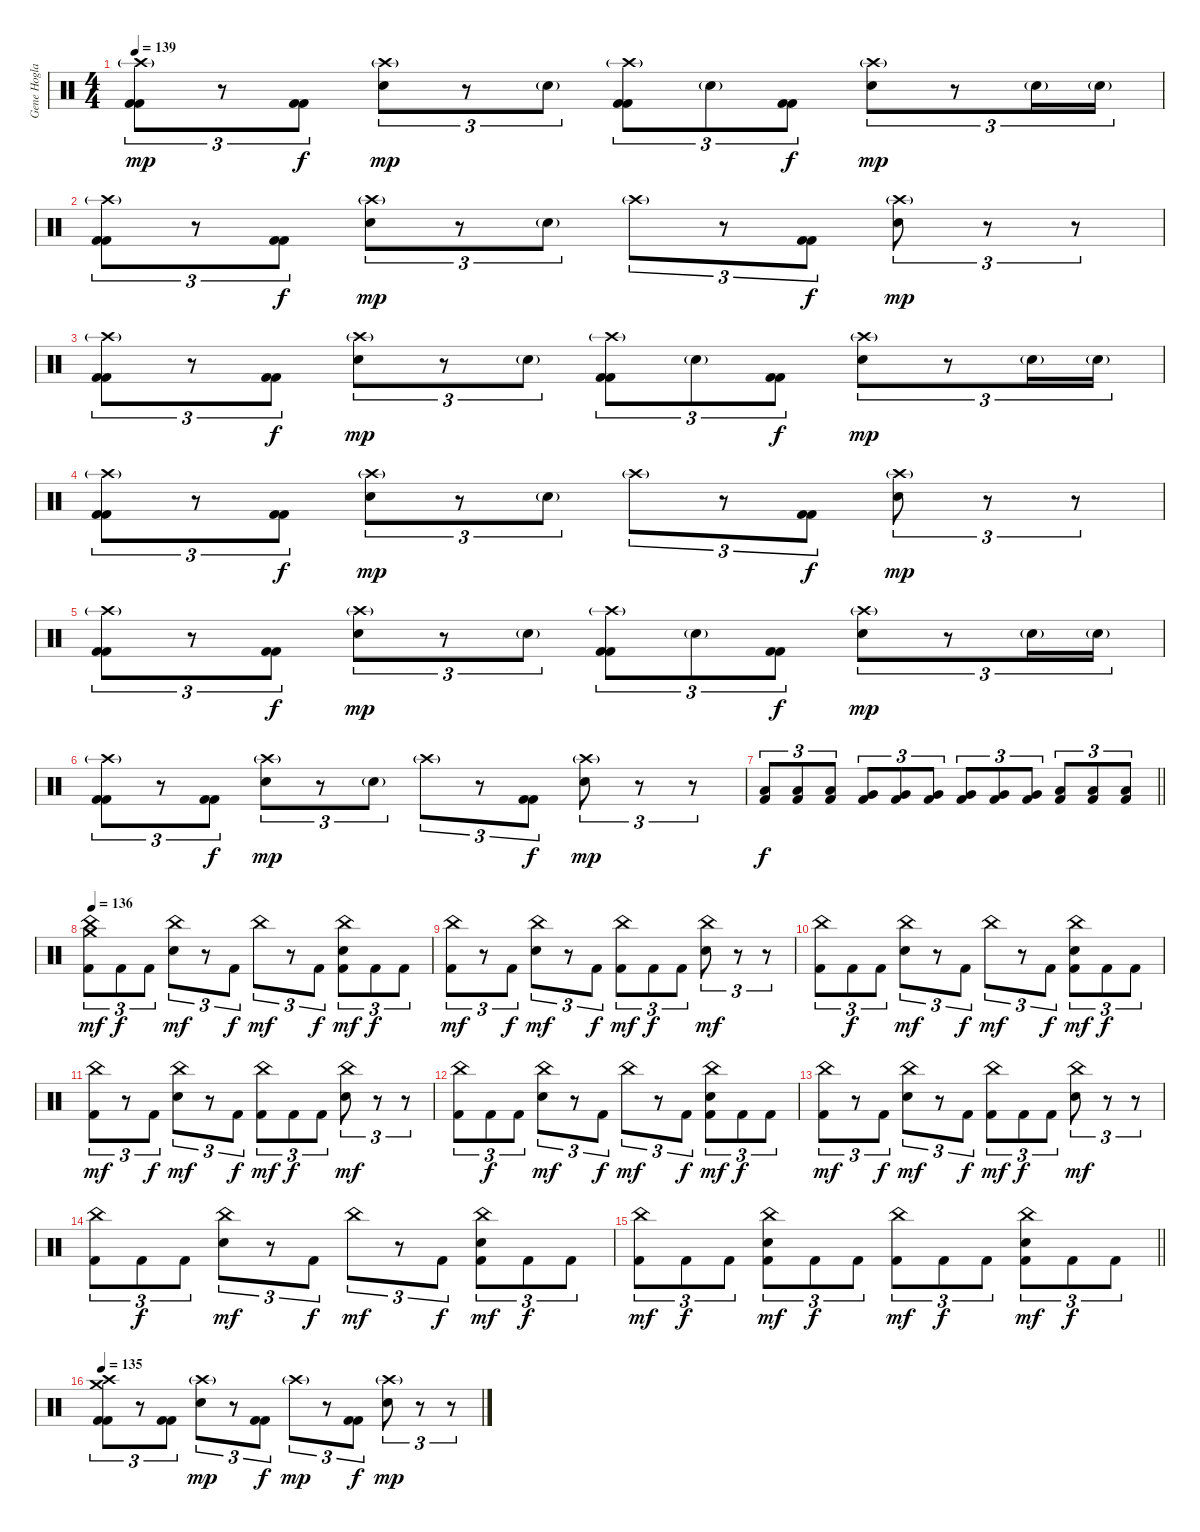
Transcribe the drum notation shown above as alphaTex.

\track ("Gene Hoglan" "Gene Hogla") {instrument percussion}
\staff {score}
\articulation defaults
\ts (4 4)
\tempo 139
\clef neutral
\ks c
("Crash high (hit)"{g} "Kick (hit) 2" "Kick (hit) 2").8{tu (3 2) dy mp} r.8{tu (3 2)} ("Kick (hit) 2" "Kick (hit) 2").8{tu (3 2) dy f} ("Crash high (hit)"{g} "Electric Snare (hit)").8{tu (3 2) dy mp} r.8{tu (3 2)} "Electric Snare (hit)"{g}.8{tu (3 2)} ("Crash high (hit)"{g} "Kick (hit) 2" "Kick (hit) 2").8{tu (3 2)} "Electric Snare (hit)"{g}.8{tu (3 2)} ("Kick (hit) 2" "Kick (hit) 2").8{tu (3 2) dy f} ("Crash high (hit)"{g} "Electric Snare (hit)").8{tu (3 2) dy mp} r.8{tu (3 2)} "Electric Snare (hit)"{g}.16{tu (3 2)} "Electric Snare (hit)"{g}.16{tu (3 2)} |
("Crash high (hit)"{g} "Kick (hit) 2" "Kick (hit) 2").8{tu (3 2)} r.8{tu (3 2)} ("Kick (hit) 2" "Kick (hit) 2").8{tu (3 2) dy f} ("Crash high (hit)"{g} "Electric Snare (hit)").8{tu (3 2) dy mp} r.8{tu (3 2)} "Electric Snare (hit)"{g}.8{tu (3 2)} "Crash high (hit)"{g}.8{tu (3 2)} r.8{tu (3 2)} ("Kick (hit) 2" "Kick (hit) 2").8{tu (3 2) dy f} ("Crash high (hit)"{g} "Electric Snare (hit)").8{tu (3 2) dy mp} r.8{tu (3 2)} r.8{tu (3 2)} |
("Crash high (hit)"{g} "Kick (hit) 2" "Kick (hit) 2").8{tu (3 2)} r.8{tu (3 2)} ("Kick (hit) 2" "Kick (hit) 2").8{tu (3 2) dy f} ("Crash high (hit)"{g} "Electric Snare (hit)").8{tu (3 2) dy mp} r.8{tu (3 2)} "Electric Snare (hit)"{g}.8{tu (3 2)} ("Crash high (hit)"{g} "Kick (hit) 2" "Kick (hit) 2").8{tu (3 2)} "Electric Snare (hit)"{g}.8{tu (3 2)} ("Kick (hit) 2" "Kick (hit) 2").8{tu (3 2) dy f} ("Crash high (hit)"{g} "Electric Snare (hit)").8{tu (3 2) dy mp} r.8{tu (3 2)} "Electric Snare (hit)"{g}.16{tu (3 2)} "Electric Snare (hit)"{g}.16{tu (3 2)} |
("Crash high (hit)"{g} "Kick (hit) 2" "Kick (hit) 2").8{tu (3 2)} r.8{tu (3 2)} ("Kick (hit) 2" "Kick (hit) 2").8{tu (3 2) dy f} ("Crash high (hit)"{g} "Electric Snare (hit)").8{tu (3 2) dy mp} r.8{tu (3 2)} "Electric Snare (hit)"{g}.8{tu (3 2)} "Crash high (hit)"{g}.8{tu (3 2)} r.8{tu (3 2)} ("Kick (hit) 2" "Kick (hit) 2").8{tu (3 2) dy f} ("Crash high (hit)"{g} "Electric Snare (hit)").8{tu (3 2) dy mp} r.8{tu (3 2)} r.8{tu (3 2)} |
("Crash high (hit)"{g} "Kick (hit) 2" "Kick (hit) 2").8{tu (3 2)} r.8{tu (3 2)} ("Kick (hit) 2" "Kick (hit) 2").8{tu (3 2) dy f} ("Crash high (hit)"{g} "Electric Snare (hit)").8{tu (3 2) dy mp} r.8{tu (3 2)} "Electric Snare (hit)"{g}.8{tu (3 2)} ("Crash high (hit)"{g} "Kick (hit) 2" "Kick (hit) 2").8{tu (3 2)} "Electric Snare (hit)"{g}.8{tu (3 2)} ("Kick (hit) 2" "Kick (hit) 2").8{tu (3 2) dy f} ("Crash high (hit)"{g} "Electric Snare (hit)").8{tu (3 2) dy mp} r.8{tu (3 2)} "Electric Snare (hit)"{g}.16{tu (3 2)} "Electric Snare (hit)"{g}.16{tu (3 2)} |
("Crash high (hit)"{g} "Kick (hit) 2" "Kick (hit) 2").8{tu (3 2)} r.8{tu (3 2)} ("Kick (hit) 2" "Kick (hit) 2").8{tu (3 2) dy f} ("Crash high (hit)"{g} "Electric Snare (hit)").8{tu (3 2) dy mp} r.8{tu (3 2)} "Electric Snare (hit)"{g}.8{tu (3 2)} "Crash high (hit)"{g}.8{tu (3 2)} r.8{tu (3 2)} ("Kick (hit) 2" "Kick (hit) 2").8{tu (3 2) dy f} ("Crash high (hit)"{g} "Electric Snare (hit)").8{tu (3 2) dy mp} r.8{tu (3 2)} r.8{tu (3 2)} |
\barLineRight lightlight
("Low Tom (hit)" "Kick (hit) 2").8{tu (3 2) dy f} ("Low Tom (hit)" "Kick (hit) 2").8{tu (3 2)} ("Low Tom (hit)" "Kick (hit) 2").8{tu (3 2)} ("Very Low Tom (hit)" "Kick (hit) 2").8{tu (3 2)} ("Very Low Tom (hit)" "Kick (hit) 2").8{tu (3 2)} ("Very Low Tom (hit)" "Kick (hit) 2").8{tu (3 2)} ("Very Low Tom (hit)" "Kick (hit) 2").8{tu (3 2)} ("Very Low Tom (hit)" "Kick (hit) 2").8{tu (3 2)} ("Very Low Tom (hit)" "Kick (hit) 2").8{tu (3 2)} ("Low Floor Tom (hit)" "Kick (hit) 2").8{tu (3 2)} ("Low Floor Tom (hit)" "Kick (hit) 2").8{tu (3 2)} ("Low Floor Tom (hit)" "Kick (hit) 2").8{tu (3 2)} |
\tempo 136
("Crash medium (hit)" "China (hit)" "Kick (hit) 2").8{tu (3 2) dy mf} "Kick (hit) 2".8{tu (3 2) dy f} "Kick (hit) 2".8{tu (3 2)} ("China (hit)" "Electric Snare (hit)").8{tu (3 2) dy mf} r.8{tu (3 2)} "Kick (hit) 2".8{tu (3 2) dy f} "China (hit)".8{tu (3 2) dy mf} r.8{tu (3 2)} "Kick (hit) 2".8{tu (3 2) dy f} ("China (hit)" "Electric Snare (hit)" "Kick (hit) 2").8{tu (3 2) dy mf} "Kick (hit) 2".8{tu (3 2) dy f} "Kick (hit) 2".8{tu (3 2)} |
("China (hit)" "Kick (hit) 2").8{tu (3 2) dy mf} r.8{tu (3 2)} "Kick (hit) 2".8{tu (3 2) dy f} ("China (hit)" "Electric Snare (hit)").8{tu (3 2) dy mf} r.8{tu (3 2)} "Kick (hit) 2".8{tu (3 2) dy f} ("China (hit)" "Kick (hit) 2").8{tu (3 2) dy mf} "Kick (hit) 2".8{tu (3 2) dy f} "Kick (hit) 2".8{tu (3 2)} ("China (hit)" "Electric Snare (hit)").8{tu (3 2) dy mf} r.8{tu (3 2)} r.8{tu (3 2)} |
("China (hit)" "Kick (hit) 2").8{tu (3 2)} "Kick (hit) 2".8{tu (3 2) dy f} "Kick (hit) 2".8{tu (3 2)} ("China (hit)" "Electric Snare (hit)").8{tu (3 2) dy mf} r.8{tu (3 2)} "Kick (hit) 2".8{tu (3 2) dy f} "China (hit)".8{tu (3 2) dy mf} r.8{tu (3 2)} "Kick (hit) 2".8{tu (3 2) dy f} ("China (hit)" "Electric Snare (hit)" "Kick (hit) 2").8{tu (3 2) dy mf} "Kick (hit) 2".8{tu (3 2) dy f} "Kick (hit) 2".8{tu (3 2)} |
("China (hit)" "Kick (hit) 2").8{tu (3 2) dy mf} r.8{tu (3 2)} "Kick (hit) 2".8{tu (3 2) dy f} ("China (hit)" "Electric Snare (hit)").8{tu (3 2) dy mf} r.8{tu (3 2)} "Kick (hit) 2".8{tu (3 2) dy f} ("China (hit)" "Kick (hit) 2").8{tu (3 2) dy mf} "Kick (hit) 2".8{tu (3 2) dy f} "Kick (hit) 2".8{tu (3 2)} ("China (hit)" "Electric Snare (hit)").8{tu (3 2) dy mf} r.8{tu (3 2)} r.8{tu (3 2)} |
("China (hit)" "Kick (hit) 2").8{tu (3 2)} "Kick (hit) 2".8{tu (3 2) dy f} "Kick (hit) 2".8{tu (3 2)} ("China (hit)" "Electric Snare (hit)").8{tu (3 2) dy mf} r.8{tu (3 2)} "Kick (hit) 2".8{tu (3 2) dy f} "China (hit)".8{tu (3 2) dy mf} r.8{tu (3 2)} "Kick (hit) 2".8{tu (3 2) dy f} ("China (hit)" "Electric Snare (hit)" "Kick (hit) 2").8{tu (3 2) dy mf} "Kick (hit) 2".8{tu (3 2) dy f} "Kick (hit) 2".8{tu (3 2)} |
("China (hit)" "Kick (hit) 2").8{tu (3 2) dy mf} r.8{tu (3 2)} "Kick (hit) 2".8{tu (3 2) dy f} ("China (hit)" "Electric Snare (hit)").8{tu (3 2) dy mf} r.8{tu (3 2)} "Kick (hit) 2".8{tu (3 2) dy f} ("China (hit)" "Kick (hit) 2").8{tu (3 2) dy mf} "Kick (hit) 2".8{tu (3 2) dy f} "Kick (hit) 2".8{tu (3 2)} ("China (hit)" "Electric Snare (hit)").8{tu (3 2) dy mf} r.8{tu (3 2)} r.8{tu (3 2)} |
("China (hit)" "Kick (hit) 2").8{tu (3 2)} "Kick (hit) 2".8{tu (3 2) dy f} "Kick (hit) 2".8{tu (3 2)} ("China (hit)" "Electric Snare (hit)").8{tu (3 2) dy mf} r.8{tu (3 2)} "Kick (hit) 2".8{tu (3 2) dy f} "China (hit)".8{tu (3 2) dy mf} r.8{tu (3 2)} "Kick (hit) 2".8{tu (3 2) dy f} ("China (hit)" "Electric Snare (hit)" "Kick (hit) 2").8{tu (3 2) dy mf} "Kick (hit) 2".8{tu (3 2) dy f} "Kick (hit) 2".8{tu (3 2)} |
\barLineRight lightlight
("China (hit)" "Kick (hit) 2").8{tu (3 2) dy mf} "Kick (hit) 2".8{tu (3 2) dy f} "Kick (hit) 2".8{tu (3 2)} ("China (hit)" "Electric Snare (hit)" "Kick (hit) 2").8{tu (3 2) dy mf} "Kick (hit) 2".8{tu (3 2) dy f} "Kick (hit) 2".8{tu (3 2)} ("China (hit)" "Kick (hit) 2").8{tu (3 2) dy mf} "Kick (hit) 2".8{tu (3 2) dy f} "Kick (hit) 2".8{tu (3 2)} ("China (hit)" "Electric Snare (hit)" "Kick (hit) 2").8{tu (3 2) dy mf} "Kick (hit) 2".8{tu (3 2) dy f} "Kick (hit) 2".8{tu (3 2)} |
\tempo 135
("Crash high (hit)" "Crash medium (hit)" "Kick (hit) 2" "Kick (hit) 2").8{tu (3 2)} r.8{tu (3 2)} ("Kick (hit) 2" "Kick (hit) 2").8{tu (3 2)} ("Crash high (hit)"{g} "Electric Snare (hit)").8{tu (3 2) dy mp} r.8{tu (3 2)} ("Kick (hit) 2" "Kick (hit) 2").8{tu (3 2) dy f} "Crash high (hit)"{g}.8{tu (3 2) dy mp} r.8{tu (3 2)} ("Kick (hit) 2" "Kick (hit) 2").8{tu (3 2) dy f} ("Crash high (hit)"{g} "Electric Snare (hit)").8{tu (3 2) dy mp} r.8{tu (3 2)} r.8{tu (3 2)}
